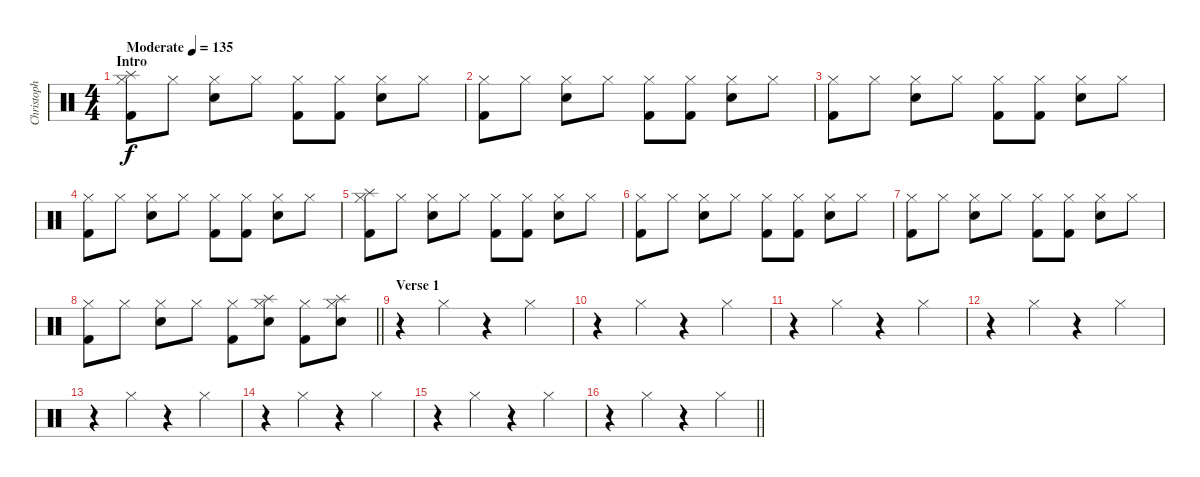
\track ("Christoph Schneider" "Christoph ") {instrument percussion}
\staff {score}
\articulation defaults
\ts (4 4)
\section ("" "Intro")
\tempo (135 "Moderate")
\clef neutral
\ks c
("Splash (hit)" "Hi-Hat (closed)" "Kick (hit) 2").8{dy f} "Hi-Hat (closed)".8 ("Hi-Hat (closed)" "Electric Snare (hit)").8 "Hi-Hat (closed)".8 ("Hi-Hat (closed)" "Kick (hit) 2").8 ("Hi-Hat (closed)" "Kick (hit) 2").8 ("Hi-Hat (closed)" "Electric Snare (hit)").8 "Hi-Hat (closed)".8 |
("Hi-Hat (closed)" "Kick (hit) 2").8 "Hi-Hat (closed)".8 ("Hi-Hat (closed)" "Electric Snare (hit)").8 "Hi-Hat (closed)".8 ("Hi-Hat (closed)" "Kick (hit) 2").8 ("Hi-Hat (closed)" "Kick (hit) 2").8 ("Hi-Hat (closed)" "Electric Snare (hit)").8 "Hi-Hat (closed)".8 |
("Hi-Hat (closed)" "Kick (hit) 2").8 "Hi-Hat (closed)".8 ("Hi-Hat (closed)" "Electric Snare (hit)").8 "Hi-Hat (closed)".8 ("Hi-Hat (closed)" "Kick (hit) 2").8 ("Hi-Hat (closed)" "Kick (hit) 2").8 ("Hi-Hat (closed)" "Electric Snare (hit)").8 "Hi-Hat (closed)".8 |
("Hi-Hat (closed)" "Kick (hit) 2").8 "Hi-Hat (closed)".8 ("Hi-Hat (closed)" "Electric Snare (hit)").8 "Hi-Hat (closed)".8 ("Hi-Hat (closed)" "Kick (hit) 2").8 ("Hi-Hat (closed)" "Kick (hit) 2").8 ("Hi-Hat (closed)" "Electric Snare (hit)").8 "Hi-Hat (closed)".8 |
("Splash (hit)" "Hi-Hat (closed)" "Kick (hit) 2").8 "Hi-Hat (closed)".8 ("Hi-Hat (closed)" "Electric Snare (hit)").8 "Hi-Hat (closed)".8 ("Hi-Hat (closed)" "Kick (hit) 2").8 ("Hi-Hat (closed)" "Kick (hit) 2").8 ("Hi-Hat (closed)" "Electric Snare (hit)").8 "Hi-Hat (closed)".8 |
("Hi-Hat (closed)" "Kick (hit) 2").8 "Hi-Hat (closed)".8 ("Hi-Hat (closed)" "Electric Snare (hit)").8 "Hi-Hat (closed)".8 ("Hi-Hat (closed)" "Kick (hit) 2").8 ("Hi-Hat (closed)" "Kick (hit) 2").8 ("Hi-Hat (closed)" "Electric Snare (hit)").8 "Hi-Hat (closed)".8 |
("Hi-Hat (closed)" "Kick (hit) 2").8 "Hi-Hat (closed)".8 ("Hi-Hat (closed)" "Electric Snare (hit)").8 "Hi-Hat (closed)".8 ("Hi-Hat (closed)" "Kick (hit) 2").8 ("Hi-Hat (closed)" "Kick (hit) 2").8 ("Hi-Hat (closed)" "Electric Snare (hit)").8 "Hi-Hat (closed)".8 |
\barLineRight lightlight
("Hi-Hat (closed)" "Kick (hit) 2").8 "Hi-Hat (closed)".8 ("Hi-Hat (closed)" "Electric Snare (hit)").8 "Hi-Hat (closed)".8 ("Hi-Hat (closed)" "Kick (hit) 2").8 ("Splash (hit)" "Hi-Hat (closed)" "Electric Snare (hit)").8 ("Hi-Hat (closed)" "Kick (hit) 2").8 ("Splash (hit)" "Hi-Hat (closed)" "Electric Snare (hit)").8 |
\section ("" "Verse 1")
r.4 "Hi-Hat (closed)".4 r.4 "Hi-Hat (closed)".4 |
r.4 "Hi-Hat (closed)".4 r.4 "Hi-Hat (closed)".4 |
r.4 "Hi-Hat (closed)".4 r.4 "Hi-Hat (closed)".4 |
r.4 "Hi-Hat (closed)".4 r.4 "Hi-Hat (closed)".4 |
r.4 "Hi-Hat (closed)".4 r.4 "Hi-Hat (closed)".4 |
r.4 "Hi-Hat (closed)".4 r.4 "Hi-Hat (closed)".4 |
r.4 "Hi-Hat (closed)".4 r.4 "Hi-Hat (closed)".4 |
\barLineRight lightlight
r.4 "Hi-Hat (closed)".4 r.4 "Hi-Hat (closed)".4
